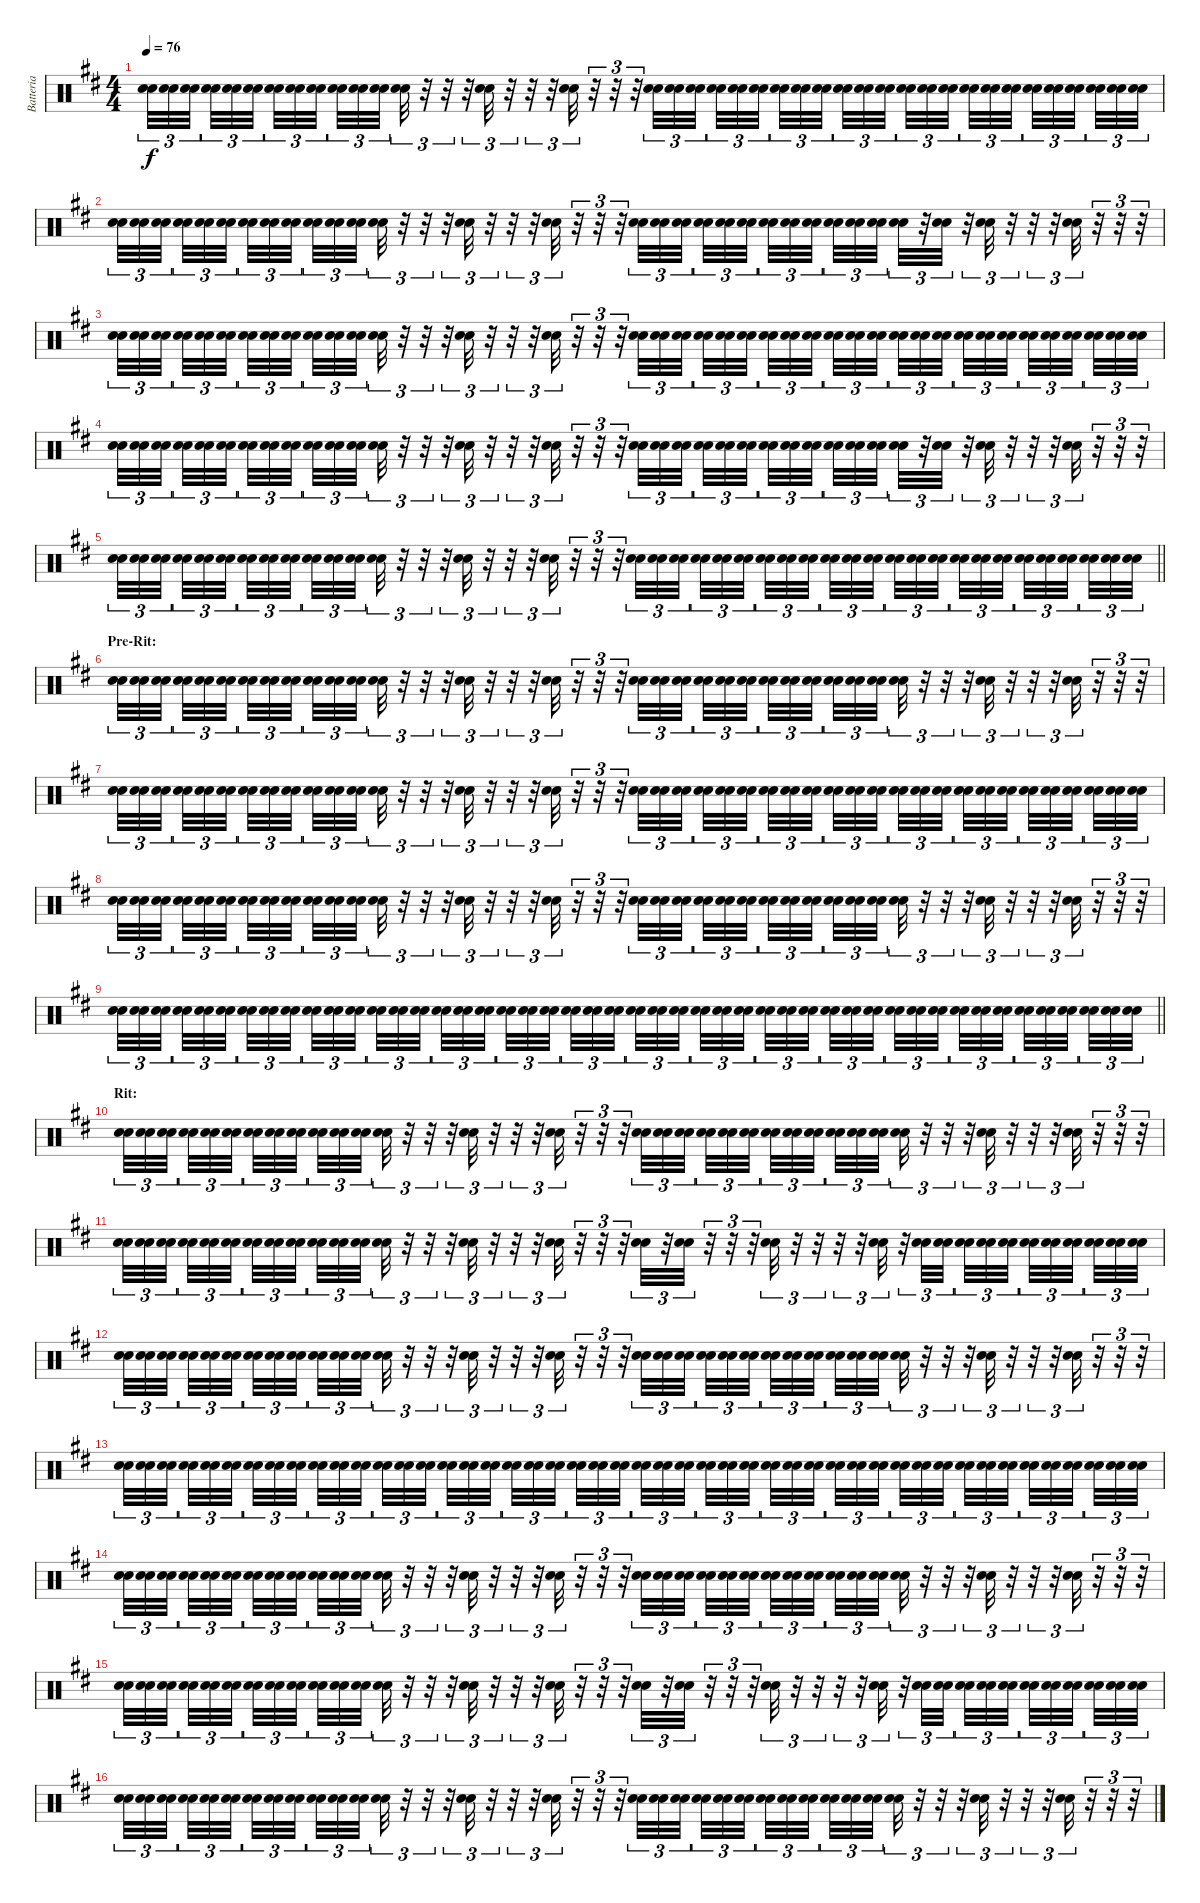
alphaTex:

\track ("Batteria" "Batteria") {instrument percussion}
\staff {score}
\articulation defaults
\ts (4 4)
\tempo 76
\clef neutral
\ks d
("Snare (hit) 2" "Snare (hit) 2").32{tu (3 2) dy f} ("Snare (hit) 2" "Snare (hit) 2").32{tu (3 2)} ("Snare (hit) 2" "Snare (hit) 2").32{tu (3 2) beam splitsecondary} ("Snare (hit) 2" "Snare (hit) 2").32{tu (3 2)} ("Snare (hit) 2" "Snare (hit) 2").32{tu (3 2)} ("Snare (hit) 2" "Snare (hit) 2").32{tu (3 2) beam splitsecondary} ("Snare (hit) 2" "Snare (hit) 2").32{tu (3 2)} ("Snare (hit) 2" "Snare (hit) 2").32{tu (3 2)} ("Snare (hit) 2" "Snare (hit) 2").32{tu (3 2) beam splitsecondary} ("Snare (hit) 2" "Snare (hit) 2").32{tu (3 2)} ("Snare (hit) 2" "Snare (hit) 2").32{tu (3 2)} ("Snare (hit) 2" "Snare (hit) 2").32{tu (3 2)} ("Snare (hit) 2" "Snare (hit) 2").32{tu (3 2)} r.32{tu (3 2)} r.32{tu (3 2)} r.32{tu (3 2)} ("Snare (hit) 2" "Snare (hit) 2").32{tu (3 2)} r.32{tu (3 2)} r.32{tu (3 2)} r.32{tu (3 2)} ("Snare (hit) 2" "Snare (hit) 2").32{tu (3 2)} r.32{tu (3 2)} r.32{tu (3 2)} r.32{tu (3 2)} ("Snare (hit) 2" "Snare (hit) 2").32{tu (3 2)} ("Snare (hit) 2" "Snare (hit) 2").32{tu (3 2)} ("Snare (hit) 2" "Snare (hit) 2").32{tu (3 2) beam splitsecondary} ("Snare (hit) 2" "Snare (hit) 2").32{tu (3 2)} ("Snare (hit) 2" "Snare (hit) 2").32{tu (3 2)} ("Snare (hit) 2" "Snare (hit) 2").32{tu (3 2) beam splitsecondary} ("Snare (hit) 2" "Snare (hit) 2").32{tu (3 2)} ("Snare (hit) 2" "Snare (hit) 2").32{tu (3 2)} ("Snare (hit) 2" "Snare (hit) 2").32{tu (3 2) beam splitsecondary} ("Snare (hit) 2" "Snare (hit) 2").32{tu (3 2)} ("Snare (hit) 2" "Snare (hit) 2").32{tu (3 2)} ("Snare (hit) 2" "Snare (hit) 2").32{tu (3 2)} ("Snare (hit) 2" "Snare (hit) 2").32{tu (3 2)} ("Snare (hit) 2" "Snare (hit) 2").32{tu (3 2)} ("Snare (hit) 2" "Snare (hit) 2").32{tu (3 2) beam splitsecondary} ("Snare (hit) 2" "Snare (hit) 2").32{tu (3 2)} ("Snare (hit) 2" "Snare (hit) 2").32{tu (3 2)} ("Snare (hit) 2" "Snare (hit) 2").32{tu (3 2) beam splitsecondary} ("Snare (hit) 2" "Snare (hit) 2").32{tu (3 2)} ("Snare (hit) 2" "Snare (hit) 2").32{tu (3 2)} ("Snare (hit) 2" "Snare (hit) 2").32{tu (3 2) beam splitsecondary} ("Snare (hit) 2" "Snare (hit) 2").32{tu (3 2)} ("Snare (hit) 2" "Snare (hit) 2").32{tu (3 2)} ("Snare (hit) 2" "Snare (hit) 2").32{tu (3 2)} |
("Snare (hit) 2" "Snare (hit) 2").32{tu (3 2)} ("Snare (hit) 2" "Snare (hit) 2").32{tu (3 2)} ("Snare (hit) 2" "Snare (hit) 2").32{tu (3 2) beam splitsecondary} ("Snare (hit) 2" "Snare (hit) 2").32{tu (3 2)} ("Snare (hit) 2" "Snare (hit) 2").32{tu (3 2)} ("Snare (hit) 2" "Snare (hit) 2").32{tu (3 2) beam splitsecondary} ("Snare (hit) 2" "Snare (hit) 2").32{tu (3 2)} ("Snare (hit) 2" "Snare (hit) 2").32{tu (3 2)} ("Snare (hit) 2" "Snare (hit) 2").32{tu (3 2) beam splitsecondary} ("Snare (hit) 2" "Snare (hit) 2").32{tu (3 2)} ("Snare (hit) 2" "Snare (hit) 2").32{tu (3 2)} ("Snare (hit) 2" "Snare (hit) 2").32{tu (3 2)} ("Snare (hit) 2" "Snare (hit) 2").32{tu (3 2)} r.32{tu (3 2)} r.32{tu (3 2)} r.32{tu (3 2)} ("Snare (hit) 2" "Snare (hit) 2").32{tu (3 2)} r.32{tu (3 2)} r.32{tu (3 2)} r.32{tu (3 2)} ("Snare (hit) 2" "Snare (hit) 2").32{tu (3 2)} r.32{tu (3 2)} r.32{tu (3 2)} r.32{tu (3 2)} ("Snare (hit) 2" "Snare (hit) 2").32{tu (3 2)} ("Snare (hit) 2" "Snare (hit) 2").32{tu (3 2)} ("Snare (hit) 2" "Snare (hit) 2").32{tu (3 2) beam splitsecondary} ("Snare (hit) 2" "Snare (hit) 2").32{tu (3 2)} ("Snare (hit) 2" "Snare (hit) 2").32{tu (3 2)} ("Snare (hit) 2" "Snare (hit) 2").32{tu (3 2) beam splitsecondary} ("Snare (hit) 2" "Snare (hit) 2").32{tu (3 2)} ("Snare (hit) 2" "Snare (hit) 2").32{tu (3 2)} ("Snare (hit) 2" "Snare (hit) 2").32{tu (3 2) beam splitsecondary} ("Snare (hit) 2" "Snare (hit) 2").32{tu (3 2)} ("Snare (hit) 2" "Snare (hit) 2").32{tu (3 2)} ("Snare (hit) 2" "Snare (hit) 2").32{tu (3 2)} ("Snare (hit) 2" "Snare (hit) 2").32{tu (3 2)} r.32{tu (3 2)} ("Snare (hit) 2" "Snare (hit) 2").32{tu (3 2)} r.32{tu (3 2)} ("Snare (hit) 2" "Snare (hit) 2").32{tu (3 2)} r.32{tu (3 2)} r.32{tu (3 2)} r.32{tu (3 2)} ("Snare (hit) 2" "Snare (hit) 2").32{tu (3 2)} r.32{tu (3 2)} r.32{tu (3 2)} r.32{tu (3 2)} |
("Snare (hit) 2" "Snare (hit) 2").32{tu (3 2)} ("Snare (hit) 2" "Snare (hit) 2").32{tu (3 2)} ("Snare (hit) 2" "Snare (hit) 2").32{tu (3 2) beam splitsecondary} ("Snare (hit) 2" "Snare (hit) 2").32{tu (3 2)} ("Snare (hit) 2" "Snare (hit) 2").32{tu (3 2)} ("Snare (hit) 2" "Snare (hit) 2").32{tu (3 2) beam splitsecondary} ("Snare (hit) 2" "Snare (hit) 2").32{tu (3 2)} ("Snare (hit) 2" "Snare (hit) 2").32{tu (3 2)} ("Snare (hit) 2" "Snare (hit) 2").32{tu (3 2) beam splitsecondary} ("Snare (hit) 2" "Snare (hit) 2").32{tu (3 2)} ("Snare (hit) 2" "Snare (hit) 2").32{tu (3 2)} ("Snare (hit) 2" "Snare (hit) 2").32{tu (3 2)} ("Snare (hit) 2" "Snare (hit) 2").32{tu (3 2)} r.32{tu (3 2)} r.32{tu (3 2)} r.32{tu (3 2)} ("Snare (hit) 2" "Snare (hit) 2").32{tu (3 2)} r.32{tu (3 2)} r.32{tu (3 2)} r.32{tu (3 2)} ("Snare (hit) 2" "Snare (hit) 2").32{tu (3 2)} r.32{tu (3 2)} r.32{tu (3 2)} r.32{tu (3 2)} ("Snare (hit) 2" "Snare (hit) 2").32{tu (3 2)} ("Snare (hit) 2" "Snare (hit) 2").32{tu (3 2)} ("Snare (hit) 2" "Snare (hit) 2").32{tu (3 2) beam splitsecondary} ("Snare (hit) 2" "Snare (hit) 2").32{tu (3 2)} ("Snare (hit) 2" "Snare (hit) 2").32{tu (3 2)} ("Snare (hit) 2" "Snare (hit) 2").32{tu (3 2) beam splitsecondary} ("Snare (hit) 2" "Snare (hit) 2").32{tu (3 2)} ("Snare (hit) 2" "Snare (hit) 2").32{tu (3 2)} ("Snare (hit) 2" "Snare (hit) 2").32{tu (3 2) beam splitsecondary} ("Snare (hit) 2" "Snare (hit) 2").32{tu (3 2)} ("Snare (hit) 2" "Snare (hit) 2").32{tu (3 2)} ("Snare (hit) 2" "Snare (hit) 2").32{tu (3 2)} ("Snare (hit) 2" "Snare (hit) 2").32{tu (3 2)} ("Snare (hit) 2" "Snare (hit) 2").32{tu (3 2)} ("Snare (hit) 2" "Snare (hit) 2").32{tu (3 2) beam splitsecondary} ("Snare (hit) 2" "Snare (hit) 2").32{tu (3 2)} ("Snare (hit) 2" "Snare (hit) 2").32{tu (3 2)} ("Snare (hit) 2" "Snare (hit) 2").32{tu (3 2) beam splitsecondary} ("Snare (hit) 2" "Snare (hit) 2").32{tu (3 2)} ("Snare (hit) 2" "Snare (hit) 2").32{tu (3 2)} ("Snare (hit) 2" "Snare (hit) 2").32{tu (3 2) beam splitsecondary} ("Snare (hit) 2" "Snare (hit) 2").32{tu (3 2)} ("Snare (hit) 2" "Snare (hit) 2").32{tu (3 2)} ("Snare (hit) 2" "Snare (hit) 2").32{tu (3 2)} |
("Snare (hit) 2" "Snare (hit) 2").32{tu (3 2)} ("Snare (hit) 2" "Snare (hit) 2").32{tu (3 2)} ("Snare (hit) 2" "Snare (hit) 2").32{tu (3 2) beam splitsecondary} ("Snare (hit) 2" "Snare (hit) 2").32{tu (3 2)} ("Snare (hit) 2" "Snare (hit) 2").32{tu (3 2)} ("Snare (hit) 2" "Snare (hit) 2").32{tu (3 2) beam splitsecondary} ("Snare (hit) 2" "Snare (hit) 2").32{tu (3 2)} ("Snare (hit) 2" "Snare (hit) 2").32{tu (3 2)} ("Snare (hit) 2" "Snare (hit) 2").32{tu (3 2) beam splitsecondary} ("Snare (hit) 2" "Snare (hit) 2").32{tu (3 2)} ("Snare (hit) 2" "Snare (hit) 2").32{tu (3 2)} ("Snare (hit) 2" "Snare (hit) 2").32{tu (3 2)} ("Snare (hit) 2" "Snare (hit) 2").32{tu (3 2)} r.32{tu (3 2)} r.32{tu (3 2)} r.32{tu (3 2)} ("Snare (hit) 2" "Snare (hit) 2").32{tu (3 2)} r.32{tu (3 2)} r.32{tu (3 2)} r.32{tu (3 2)} ("Snare (hit) 2" "Snare (hit) 2").32{tu (3 2)} r.32{tu (3 2)} r.32{tu (3 2)} r.32{tu (3 2)} ("Snare (hit) 2" "Snare (hit) 2").32{tu (3 2)} ("Snare (hit) 2" "Snare (hit) 2").32{tu (3 2)} ("Snare (hit) 2" "Snare (hit) 2").32{tu (3 2) beam splitsecondary} ("Snare (hit) 2" "Snare (hit) 2").32{tu (3 2)} ("Snare (hit) 2" "Snare (hit) 2").32{tu (3 2)} ("Snare (hit) 2" "Snare (hit) 2").32{tu (3 2) beam splitsecondary} ("Snare (hit) 2" "Snare (hit) 2").32{tu (3 2)} ("Snare (hit) 2" "Snare (hit) 2").32{tu (3 2)} ("Snare (hit) 2" "Snare (hit) 2").32{tu (3 2) beam splitsecondary} ("Snare (hit) 2" "Snare (hit) 2").32{tu (3 2)} ("Snare (hit) 2" "Snare (hit) 2").32{tu (3 2)} ("Snare (hit) 2" "Snare (hit) 2").32{tu (3 2)} ("Snare (hit) 2" "Snare (hit) 2").32{tu (3 2)} r.32{tu (3 2)} ("Snare (hit) 2" "Snare (hit) 2").32{tu (3 2)} r.32{tu (3 2)} ("Snare (hit) 2" "Snare (hit) 2").32{tu (3 2)} r.32{tu (3 2)} r.32{tu (3 2)} r.32{tu (3 2)} ("Snare (hit) 2" "Snare (hit) 2").32{tu (3 2)} r.32{tu (3 2)} r.32{tu (3 2)} r.32{tu (3 2)} |
\barLineRight lightlight
("Snare (hit) 2" "Snare (hit) 2").32{tu (3 2)} ("Snare (hit) 2" "Snare (hit) 2").32{tu (3 2)} ("Snare (hit) 2" "Snare (hit) 2").32{tu (3 2) beam splitsecondary} ("Snare (hit) 2" "Snare (hit) 2").32{tu (3 2)} ("Snare (hit) 2" "Snare (hit) 2").32{tu (3 2)} ("Snare (hit) 2" "Snare (hit) 2").32{tu (3 2) beam splitsecondary} ("Snare (hit) 2" "Snare (hit) 2").32{tu (3 2)} ("Snare (hit) 2" "Snare (hit) 2").32{tu (3 2)} ("Snare (hit) 2" "Snare (hit) 2").32{tu (3 2) beam splitsecondary} ("Snare (hit) 2" "Snare (hit) 2").32{tu (3 2)} ("Snare (hit) 2" "Snare (hit) 2").32{tu (3 2)} ("Snare (hit) 2" "Snare (hit) 2").32{tu (3 2)} ("Snare (hit) 2" "Snare (hit) 2").32{tu (3 2)} r.32{tu (3 2)} r.32{tu (3 2)} r.32{tu (3 2)} ("Snare (hit) 2" "Snare (hit) 2").32{tu (3 2)} r.32{tu (3 2)} r.32{tu (3 2)} r.32{tu (3 2)} ("Snare (hit) 2" "Snare (hit) 2").32{tu (3 2)} r.32{tu (3 2)} r.32{tu (3 2)} r.32{tu (3 2)} ("Snare (hit) 2" "Snare (hit) 2").32{tu (3 2)} ("Snare (hit) 2" "Snare (hit) 2").32{tu (3 2)} ("Snare (hit) 2" "Snare (hit) 2").32{tu (3 2) beam splitsecondary} ("Snare (hit) 2" "Snare (hit) 2").32{tu (3 2)} ("Snare (hit) 2" "Snare (hit) 2").32{tu (3 2)} ("Snare (hit) 2" "Snare (hit) 2").32{tu (3 2) beam splitsecondary} ("Snare (hit) 2" "Snare (hit) 2").32{tu (3 2)} ("Snare (hit) 2" "Snare (hit) 2").32{tu (3 2)} ("Snare (hit) 2" "Snare (hit) 2").32{tu (3 2) beam splitsecondary} ("Snare (hit) 2" "Snare (hit) 2").32{tu (3 2)} ("Snare (hit) 2" "Snare (hit) 2").32{tu (3 2)} ("Snare (hit) 2" "Snare (hit) 2").32{tu (3 2)} ("Snare (hit) 2" "Snare (hit) 2").32{tu (3 2)} ("Snare (hit) 2" "Snare (hit) 2").32{tu (3 2)} ("Snare (hit) 2" "Snare (hit) 2").32{tu (3 2) beam splitsecondary} ("Snare (hit) 2" "Snare (hit) 2").32{tu (3 2)} ("Snare (hit) 2" "Snare (hit) 2").32{tu (3 2)} ("Snare (hit) 2" "Snare (hit) 2").32{tu (3 2) beam splitsecondary} ("Snare (hit) 2" "Snare (hit) 2").32{tu (3 2)} ("Snare (hit) 2" "Snare (hit) 2").32{tu (3 2)} ("Snare (hit) 2" "Snare (hit) 2").32{tu (3 2) beam splitsecondary} ("Snare (hit) 2" "Snare (hit) 2").32{tu (3 2)} ("Snare (hit) 2" "Snare (hit) 2").32{tu (3 2)} ("Snare (hit) 2" "Snare (hit) 2").32{tu (3 2)} |
\section ("" "Pre-Rit:")
("Snare (hit) 2" "Snare (hit) 2").32{tu (3 2)} ("Snare (hit) 2" "Snare (hit) 2").32{tu (3 2)} ("Snare (hit) 2" "Snare (hit) 2").32{tu (3 2) beam splitsecondary} ("Snare (hit) 2" "Snare (hit) 2").32{tu (3 2)} ("Snare (hit) 2" "Snare (hit) 2").32{tu (3 2)} ("Snare (hit) 2" "Snare (hit) 2").32{tu (3 2) beam splitsecondary} ("Snare (hit) 2" "Snare (hit) 2").32{tu (3 2)} ("Snare (hit) 2" "Snare (hit) 2").32{tu (3 2)} ("Snare (hit) 2" "Snare (hit) 2").32{tu (3 2) beam splitsecondary} ("Snare (hit) 2" "Snare (hit) 2").32{tu (3 2)} ("Snare (hit) 2" "Snare (hit) 2").32{tu (3 2)} ("Snare (hit) 2" "Snare (hit) 2").32{tu (3 2)} ("Snare (hit) 2" "Snare (hit) 2").32{tu (3 2)} r.32{tu (3 2)} r.32{tu (3 2)} r.32{tu (3 2)} ("Snare (hit) 2" "Snare (hit) 2").32{tu (3 2)} r.32{tu (3 2)} r.32{tu (3 2)} r.32{tu (3 2)} ("Snare (hit) 2" "Snare (hit) 2").32{tu (3 2)} r.32{tu (3 2)} r.32{tu (3 2)} r.32{tu (3 2)} ("Snare (hit) 2" "Snare (hit) 2").32{tu (3 2)} ("Snare (hit) 2" "Snare (hit) 2").32{tu (3 2)} ("Snare (hit) 2" "Snare (hit) 2").32{tu (3 2) beam splitsecondary} ("Snare (hit) 2" "Snare (hit) 2").32{tu (3 2)} ("Snare (hit) 2" "Snare (hit) 2").32{tu (3 2)} ("Snare (hit) 2" "Snare (hit) 2").32{tu (3 2) beam splitsecondary} ("Snare (hit) 2" "Snare (hit) 2").32{tu (3 2)} ("Snare (hit) 2" "Snare (hit) 2").32{tu (3 2)} ("Snare (hit) 2" "Snare (hit) 2").32{tu (3 2) beam splitsecondary} ("Snare (hit) 2" "Snare (hit) 2").32{tu (3 2)} ("Snare (hit) 2" "Snare (hit) 2").32{tu (3 2)} ("Snare (hit) 2" "Snare (hit) 2").32{tu (3 2)} ("Snare (hit) 2" "Snare (hit) 2").32{tu (3 2)} r.32{tu (3 2)} r.32{tu (3 2)} r.32{tu (3 2)} ("Snare (hit) 2" "Snare (hit) 2").32{tu (3 2)} r.32{tu (3 2)} r.32{tu (3 2)} r.32{tu (3 2)} ("Snare (hit) 2" "Snare (hit) 2").32{tu (3 2)} r.32{tu (3 2)} r.32{tu (3 2)} r.32{tu (3 2)} |
("Snare (hit) 2" "Snare (hit) 2").32{tu (3 2)} ("Snare (hit) 2" "Snare (hit) 2").32{tu (3 2)} ("Snare (hit) 2" "Snare (hit) 2").32{tu (3 2) beam splitsecondary} ("Snare (hit) 2" "Snare (hit) 2").32{tu (3 2)} ("Snare (hit) 2" "Snare (hit) 2").32{tu (3 2)} ("Snare (hit) 2" "Snare (hit) 2").32{tu (3 2) beam splitsecondary} ("Snare (hit) 2" "Snare (hit) 2").32{tu (3 2)} ("Snare (hit) 2" "Snare (hit) 2").32{tu (3 2)} ("Snare (hit) 2" "Snare (hit) 2").32{tu (3 2) beam splitsecondary} ("Snare (hit) 2" "Snare (hit) 2").32{tu (3 2)} ("Snare (hit) 2" "Snare (hit) 2").32{tu (3 2)} ("Snare (hit) 2" "Snare (hit) 2").32{tu (3 2)} ("Snare (hit) 2" "Snare (hit) 2").32{tu (3 2)} r.32{tu (3 2)} r.32{tu (3 2)} r.32{tu (3 2)} ("Snare (hit) 2" "Snare (hit) 2").32{tu (3 2)} r.32{tu (3 2)} r.32{tu (3 2)} r.32{tu (3 2)} ("Snare (hit) 2" "Snare (hit) 2").32{tu (3 2)} r.32{tu (3 2)} r.32{tu (3 2)} r.32{tu (3 2)} ("Snare (hit) 2" "Snare (hit) 2").32{tu (3 2)} ("Snare (hit) 2" "Snare (hit) 2").32{tu (3 2)} ("Snare (hit) 2" "Snare (hit) 2").32{tu (3 2) beam splitsecondary} ("Snare (hit) 2" "Snare (hit) 2").32{tu (3 2)} ("Snare (hit) 2" "Snare (hit) 2").32{tu (3 2)} ("Snare (hit) 2" "Snare (hit) 2").32{tu (3 2) beam splitsecondary} ("Snare (hit) 2" "Snare (hit) 2").32{tu (3 2)} ("Snare (hit) 2" "Snare (hit) 2").32{tu (3 2)} ("Snare (hit) 2" "Snare (hit) 2").32{tu (3 2) beam splitsecondary} ("Snare (hit) 2" "Snare (hit) 2").32{tu (3 2)} ("Snare (hit) 2" "Snare (hit) 2").32{tu (3 2)} ("Snare (hit) 2" "Snare (hit) 2").32{tu (3 2)} ("Snare (hit) 2" "Snare (hit) 2").32{tu (3 2)} ("Snare (hit) 2" "Snare (hit) 2").32{tu (3 2)} ("Snare (hit) 2" "Snare (hit) 2").32{tu (3 2) beam splitsecondary} ("Snare (hit) 2" "Snare (hit) 2").32{tu (3 2)} ("Snare (hit) 2" "Snare (hit) 2").32{tu (3 2)} ("Snare (hit) 2" "Snare (hit) 2").32{tu (3 2) beam splitsecondary} ("Snare (hit) 2" "Snare (hit) 2").32{tu (3 2)} ("Snare (hit) 2" "Snare (hit) 2").32{tu (3 2)} ("Snare (hit) 2" "Snare (hit) 2").32{tu (3 2) beam splitsecondary} ("Snare (hit) 2" "Snare (hit) 2").32{tu (3 2)} ("Snare (hit) 2" "Snare (hit) 2").32{tu (3 2)} ("Snare (hit) 2" "Snare (hit) 2").32{tu (3 2)} |
("Snare (hit) 2" "Snare (hit) 2").32{tu (3 2)} ("Snare (hit) 2" "Snare (hit) 2").32{tu (3 2)} ("Snare (hit) 2" "Snare (hit) 2").32{tu (3 2) beam splitsecondary} ("Snare (hit) 2" "Snare (hit) 2").32{tu (3 2)} ("Snare (hit) 2" "Snare (hit) 2").32{tu (3 2)} ("Snare (hit) 2" "Snare (hit) 2").32{tu (3 2) beam splitsecondary} ("Snare (hit) 2" "Snare (hit) 2").32{tu (3 2)} ("Snare (hit) 2" "Snare (hit) 2").32{tu (3 2)} ("Snare (hit) 2" "Snare (hit) 2").32{tu (3 2) beam splitsecondary} ("Snare (hit) 2" "Snare (hit) 2").32{tu (3 2)} ("Snare (hit) 2" "Snare (hit) 2").32{tu (3 2)} ("Snare (hit) 2" "Snare (hit) 2").32{tu (3 2)} ("Snare (hit) 2" "Snare (hit) 2").32{tu (3 2)} r.32{tu (3 2)} r.32{tu (3 2)} r.32{tu (3 2)} ("Snare (hit) 2" "Snare (hit) 2").32{tu (3 2)} r.32{tu (3 2)} r.32{tu (3 2)} r.32{tu (3 2)} ("Snare (hit) 2" "Snare (hit) 2").32{tu (3 2)} r.32{tu (3 2)} r.32{tu (3 2)} r.32{tu (3 2)} ("Snare (hit) 2" "Snare (hit) 2").32{tu (3 2)} ("Snare (hit) 2" "Snare (hit) 2").32{tu (3 2)} ("Snare (hit) 2" "Snare (hit) 2").32{tu (3 2) beam splitsecondary} ("Snare (hit) 2" "Snare (hit) 2").32{tu (3 2)} ("Snare (hit) 2" "Snare (hit) 2").32{tu (3 2)} ("Snare (hit) 2" "Snare (hit) 2").32{tu (3 2) beam splitsecondary} ("Snare (hit) 2" "Snare (hit) 2").32{tu (3 2)} ("Snare (hit) 2" "Snare (hit) 2").32{tu (3 2)} ("Snare (hit) 2" "Snare (hit) 2").32{tu (3 2) beam splitsecondary} ("Snare (hit) 2" "Snare (hit) 2").32{tu (3 2)} ("Snare (hit) 2" "Snare (hit) 2").32{tu (3 2)} ("Snare (hit) 2" "Snare (hit) 2").32{tu (3 2)} ("Snare (hit) 2" "Snare (hit) 2").32{tu (3 2)} r.32{tu (3 2)} r.32{tu (3 2)} r.32{tu (3 2)} ("Snare (hit) 2" "Snare (hit) 2").32{tu (3 2)} r.32{tu (3 2)} r.32{tu (3 2)} r.32{tu (3 2)} ("Snare (hit) 2" "Snare (hit) 2").32{tu (3 2)} r.32{tu (3 2)} r.32{tu (3 2)} r.32{tu (3 2)} |
\barLineRight lightlight
("Snare (hit) 2" "Snare (hit) 2").32{tu (3 2)} ("Snare (hit) 2" "Snare (hit) 2").32{tu (3 2)} ("Snare (hit) 2" "Snare (hit) 2").32{tu (3 2) beam splitsecondary} ("Snare (hit) 2" "Snare (hit) 2").32{tu (3 2)} ("Snare (hit) 2" "Snare (hit) 2").32{tu (3 2)} ("Snare (hit) 2" "Snare (hit) 2").32{tu (3 2) beam splitsecondary} ("Snare (hit) 2" "Snare (hit) 2").32{tu (3 2)} ("Snare (hit) 2" "Snare (hit) 2").32{tu (3 2)} ("Snare (hit) 2" "Snare (hit) 2").32{tu (3 2) beam splitsecondary} ("Snare (hit) 2" "Snare (hit) 2").32{tu (3 2)} ("Snare (hit) 2" "Snare (hit) 2").32{tu (3 2)} ("Snare (hit) 2" "Snare (hit) 2").32{tu (3 2)} ("Snare (hit) 2" "Snare (hit) 2").32{tu (3 2)} ("Snare (hit) 2" "Snare (hit) 2").32{tu (3 2)} ("Snare (hit) 2" "Snare (hit) 2").32{tu (3 2) beam splitsecondary} ("Snare (hit) 2" "Snare (hit) 2").32{tu (3 2)} ("Snare (hit) 2" "Snare (hit) 2").32{tu (3 2)} ("Snare (hit) 2" "Snare (hit) 2").32{tu (3 2) beam splitsecondary} ("Snare (hit) 2" "Snare (hit) 2").32{tu (3 2)} ("Snare (hit) 2" "Snare (hit) 2").32{tu (3 2)} ("Snare (hit) 2" "Snare (hit) 2").32{tu (3 2) beam splitsecondary} ("Snare (hit) 2" "Snare (hit) 2").32{tu (3 2)} ("Snare (hit) 2" "Snare (hit) 2").32{tu (3 2)} ("Snare (hit) 2" "Snare (hit) 2").32{tu (3 2)} ("Snare (hit) 2" "Snare (hit) 2").32{tu (3 2)} ("Snare (hit) 2" "Snare (hit) 2").32{tu (3 2)} ("Snare (hit) 2" "Snare (hit) 2").32{tu (3 2) beam splitsecondary} ("Snare (hit) 2" "Snare (hit) 2").32{tu (3 2)} ("Snare (hit) 2" "Snare (hit) 2").32{tu (3 2)} ("Snare (hit) 2" "Snare (hit) 2").32{tu (3 2) beam splitsecondary} ("Snare (hit) 2" "Snare (hit) 2").32{tu (3 2)} ("Snare (hit) 2" "Snare (hit) 2").32{tu (3 2)} ("Snare (hit) 2" "Snare (hit) 2").32{tu (3 2) beam splitsecondary} ("Snare (hit) 2" "Snare (hit) 2").32{tu (3 2)} ("Snare (hit) 2" "Snare (hit) 2").32{tu (3 2)} ("Snare (hit) 2" "Snare (hit) 2").32{tu (3 2)} ("Snare (hit) 2" "Snare (hit) 2").32{tu (3 2)} ("Snare (hit) 2" "Snare (hit) 2").32{tu (3 2)} ("Snare (hit) 2" "Snare (hit) 2").32{tu (3 2) beam splitsecondary} ("Snare (hit) 2" "Snare (hit) 2").32{tu (3 2)} ("Snare (hit) 2" "Snare (hit) 2").32{tu (3 2)} ("Snare (hit) 2" "Snare (hit) 2").32{tu (3 2) beam splitsecondary} ("Snare (hit) 2" "Snare (hit) 2").32{tu (3 2)} ("Snare (hit) 2" "Snare (hit) 2").32{tu (3 2)} ("Snare (hit) 2" "Snare (hit) 2").32{tu (3 2) beam splitsecondary} ("Snare (hit) 2" "Snare (hit) 2").32{tu (3 2)} ("Snare (hit) 2" "Snare (hit) 2").32{tu (3 2)} ("Snare (hit) 2" "Snare (hit) 2").32{tu (3 2)} |
\section ("" "Rit:")
("Snare (hit) 2" "Snare (hit) 2").32{tu (3 2)} ("Snare (hit) 2" "Snare (hit) 2").32{tu (3 2)} ("Snare (hit) 2" "Snare (hit) 2").32{tu (3 2) beam splitsecondary} ("Snare (hit) 2" "Snare (hit) 2").32{tu (3 2)} ("Snare (hit) 2" "Snare (hit) 2").32{tu (3 2)} ("Snare (hit) 2" "Snare (hit) 2").32{tu (3 2) beam splitsecondary} ("Snare (hit) 2" "Snare (hit) 2").32{tu (3 2)} ("Snare (hit) 2" "Snare (hit) 2").32{tu (3 2)} ("Snare (hit) 2" "Snare (hit) 2").32{tu (3 2) beam splitsecondary} ("Snare (hit) 2" "Snare (hit) 2").32{tu (3 2)} ("Snare (hit) 2" "Snare (hit) 2").32{tu (3 2)} ("Snare (hit) 2" "Snare (hit) 2").32{tu (3 2)} ("Snare (hit) 2" "Snare (hit) 2").32{tu (3 2)} r.32{tu (3 2)} r.32{tu (3 2)} r.32{tu (3 2)} ("Snare (hit) 2" "Snare (hit) 2").32{tu (3 2)} r.32{tu (3 2)} r.32{tu (3 2)} r.32{tu (3 2)} ("Snare (hit) 2" "Snare (hit) 2").32{tu (3 2)} r.32{tu (3 2)} r.32{tu (3 2)} r.32{tu (3 2)} ("Snare (hit) 2" "Snare (hit) 2").32{tu (3 2)} ("Snare (hit) 2" "Snare (hit) 2").32{tu (3 2)} ("Snare (hit) 2" "Snare (hit) 2").32{tu (3 2) beam splitsecondary} ("Snare (hit) 2" "Snare (hit) 2").32{tu (3 2)} ("Snare (hit) 2" "Snare (hit) 2").32{tu (3 2)} ("Snare (hit) 2" "Snare (hit) 2").32{tu (3 2) beam splitsecondary} ("Snare (hit) 2" "Snare (hit) 2").32{tu (3 2)} ("Snare (hit) 2" "Snare (hit) 2").32{tu (3 2)} ("Snare (hit) 2" "Snare (hit) 2").32{tu (3 2) beam splitsecondary} ("Snare (hit) 2" "Snare (hit) 2").32{tu (3 2)} ("Snare (hit) 2" "Snare (hit) 2").32{tu (3 2)} ("Snare (hit) 2" "Snare (hit) 2").32{tu (3 2)} ("Snare (hit) 2" "Snare (hit) 2").32{tu (3 2)} r.32{tu (3 2)} r.32{tu (3 2)} r.32{tu (3 2)} ("Snare (hit) 2" "Snare (hit) 2").32{tu (3 2)} r.32{tu (3 2)} r.32{tu (3 2)} r.32{tu (3 2)} ("Snare (hit) 2" "Snare (hit) 2").32{tu (3 2)} r.32{tu (3 2)} r.32{tu (3 2)} r.32{tu (3 2)} |
("Snare (hit) 2" "Snare (hit) 2").32{tu (3 2)} ("Snare (hit) 2" "Snare (hit) 2").32{tu (3 2)} ("Snare (hit) 2" "Snare (hit) 2").32{tu (3 2) beam splitsecondary} ("Snare (hit) 2" "Snare (hit) 2").32{tu (3 2)} ("Snare (hit) 2" "Snare (hit) 2").32{tu (3 2)} ("Snare (hit) 2" "Snare (hit) 2").32{tu (3 2) beam splitsecondary} ("Snare (hit) 2" "Snare (hit) 2").32{tu (3 2)} ("Snare (hit) 2" "Snare (hit) 2").32{tu (3 2)} ("Snare (hit) 2" "Snare (hit) 2").32{tu (3 2) beam splitsecondary} ("Snare (hit) 2" "Snare (hit) 2").32{tu (3 2)} ("Snare (hit) 2" "Snare (hit) 2").32{tu (3 2)} ("Snare (hit) 2" "Snare (hit) 2").32{tu (3 2)} ("Snare (hit) 2" "Snare (hit) 2").32{tu (3 2)} r.32{tu (3 2)} r.32{tu (3 2)} r.32{tu (3 2)} ("Snare (hit) 2" "Snare (hit) 2").32{tu (3 2)} r.32{tu (3 2)} r.32{tu (3 2)} r.32{tu (3 2)} ("Snare (hit) 2" "Snare (hit) 2").32{tu (3 2)} r.32{tu (3 2)} r.32{tu (3 2)} r.32{tu (3 2)} ("Snare (hit) 2" "Snare (hit) 2").32{tu (3 2)} r.32{tu (3 2)} ("Snare (hit) 2" "Snare (hit) 2").32{tu (3 2)} r.32{tu (3 2)} r.32{tu (3 2)} r.32{tu (3 2)} ("Snare (hit) 2" "Snare (hit) 2").32{tu (3 2)} r.32{tu (3 2)} r.32{tu (3 2)} r.32{tu (3 2)} r.32{tu (3 2)} ("Snare (hit) 2" "Snare (hit) 2").32{tu (3 2)} r.32{tu (3 2)} ("Snare (hit) 2" "Snare (hit) 2").32{tu (3 2)} ("Snare (hit) 2" "Snare (hit) 2").32{tu (3 2) beam splitsecondary} ("Snare (hit) 2" "Snare (hit) 2").32{tu (3 2)} ("Snare (hit) 2" "Snare (hit) 2").32{tu (3 2)} ("Snare (hit) 2" "Snare (hit) 2").32{tu (3 2) beam splitsecondary} ("Snare (hit) 2" "Snare (hit) 2").32{tu (3 2)} ("Snare (hit) 2" "Snare (hit) 2").32{tu (3 2)} ("Snare (hit) 2" "Snare (hit) 2").32{tu (3 2) beam splitsecondary} ("Snare (hit) 2" "Snare (hit) 2").32{tu (3 2)} ("Snare (hit) 2" "Snare (hit) 2").32{tu (3 2)} ("Snare (hit) 2" "Snare (hit) 2").32{tu (3 2)} |
("Snare (hit) 2" "Snare (hit) 2").32{tu (3 2)} ("Snare (hit) 2" "Snare (hit) 2").32{tu (3 2)} ("Snare (hit) 2" "Snare (hit) 2").32{tu (3 2) beam splitsecondary} ("Snare (hit) 2" "Snare (hit) 2").32{tu (3 2)} ("Snare (hit) 2" "Snare (hit) 2").32{tu (3 2)} ("Snare (hit) 2" "Snare (hit) 2").32{tu (3 2) beam splitsecondary} ("Snare (hit) 2" "Snare (hit) 2").32{tu (3 2)} ("Snare (hit) 2" "Snare (hit) 2").32{tu (3 2)} ("Snare (hit) 2" "Snare (hit) 2").32{tu (3 2) beam splitsecondary} ("Snare (hit) 2" "Snare (hit) 2").32{tu (3 2)} ("Snare (hit) 2" "Snare (hit) 2").32{tu (3 2)} ("Snare (hit) 2" "Snare (hit) 2").32{tu (3 2)} ("Snare (hit) 2" "Snare (hit) 2").32{tu (3 2)} r.32{tu (3 2)} r.32{tu (3 2)} r.32{tu (3 2)} ("Snare (hit) 2" "Snare (hit) 2").32{tu (3 2)} r.32{tu (3 2)} r.32{tu (3 2)} r.32{tu (3 2)} ("Snare (hit) 2" "Snare (hit) 2").32{tu (3 2)} r.32{tu (3 2)} r.32{tu (3 2)} r.32{tu (3 2)} ("Snare (hit) 2" "Snare (hit) 2").32{tu (3 2)} ("Snare (hit) 2" "Snare (hit) 2").32{tu (3 2)} ("Snare (hit) 2" "Snare (hit) 2").32{tu (3 2) beam splitsecondary} ("Snare (hit) 2" "Snare (hit) 2").32{tu (3 2)} ("Snare (hit) 2" "Snare (hit) 2").32{tu (3 2)} ("Snare (hit) 2" "Snare (hit) 2").32{tu (3 2) beam splitsecondary} ("Snare (hit) 2" "Snare (hit) 2").32{tu (3 2)} ("Snare (hit) 2" "Snare (hit) 2").32{tu (3 2)} ("Snare (hit) 2" "Snare (hit) 2").32{tu (3 2) beam splitsecondary} ("Snare (hit) 2" "Snare (hit) 2").32{tu (3 2)} ("Snare (hit) 2" "Snare (hit) 2").32{tu (3 2)} ("Snare (hit) 2" "Snare (hit) 2").32{tu (3 2)} ("Snare (hit) 2" "Snare (hit) 2").32{tu (3 2)} r.32{tu (3 2)} r.32{tu (3 2)} r.32{tu (3 2)} ("Snare (hit) 2" "Snare (hit) 2").32{tu (3 2)} r.32{tu (3 2)} r.32{tu (3 2)} r.32{tu (3 2)} ("Snare (hit) 2" "Snare (hit) 2").32{tu (3 2)} r.32{tu (3 2)} r.32{tu (3 2)} r.32{tu (3 2)} |
("Snare (hit) 2" "Snare (hit) 2").32{tu (3 2)} ("Snare (hit) 2" "Snare (hit) 2").32{tu (3 2)} ("Snare (hit) 2" "Snare (hit) 2").32{tu (3 2) beam splitsecondary} ("Snare (hit) 2" "Snare (hit) 2").32{tu (3 2)} ("Snare (hit) 2" "Snare (hit) 2").32{tu (3 2)} ("Snare (hit) 2" "Snare (hit) 2").32{tu (3 2) beam splitsecondary} ("Snare (hit) 2" "Snare (hit) 2").32{tu (3 2)} ("Snare (hit) 2" "Snare (hit) 2").32{tu (3 2)} ("Snare (hit) 2" "Snare (hit) 2").32{tu (3 2) beam splitsecondary} ("Snare (hit) 2" "Snare (hit) 2").32{tu (3 2)} ("Snare (hit) 2" "Snare (hit) 2").32{tu (3 2)} ("Snare (hit) 2" "Snare (hit) 2").32{tu (3 2)} ("Snare (hit) 2" "Snare (hit) 2").32{tu (3 2)} ("Snare (hit) 2" "Snare (hit) 2").32{tu (3 2)} ("Snare (hit) 2" "Snare (hit) 2").32{tu (3 2) beam splitsecondary} ("Snare (hit) 2" "Snare (hit) 2").32{tu (3 2)} ("Snare (hit) 2" "Snare (hit) 2").32{tu (3 2)} ("Snare (hit) 2" "Snare (hit) 2").32{tu (3 2) beam splitsecondary} ("Snare (hit) 2" "Snare (hit) 2").32{tu (3 2)} ("Snare (hit) 2" "Snare (hit) 2").32{tu (3 2)} ("Snare (hit) 2" "Snare (hit) 2").32{tu (3 2) beam splitsecondary} ("Snare (hit) 2" "Snare (hit) 2").32{tu (3 2)} ("Snare (hit) 2" "Snare (hit) 2").32{tu (3 2)} ("Snare (hit) 2" "Snare (hit) 2").32{tu (3 2)} ("Snare (hit) 2" "Snare (hit) 2").32{tu (3 2)} ("Snare (hit) 2" "Snare (hit) 2").32{tu (3 2)} ("Snare (hit) 2" "Snare (hit) 2").32{tu (3 2) beam splitsecondary} ("Snare (hit) 2" "Snare (hit) 2").32{tu (3 2)} ("Snare (hit) 2" "Snare (hit) 2").32{tu (3 2)} ("Snare (hit) 2" "Snare (hit) 2").32{tu (3 2) beam splitsecondary} ("Snare (hit) 2" "Snare (hit) 2").32{tu (3 2)} ("Snare (hit) 2" "Snare (hit) 2").32{tu (3 2)} ("Snare (hit) 2" "Snare (hit) 2").32{tu (3 2) beam splitsecondary} ("Snare (hit) 2" "Snare (hit) 2").32{tu (3 2)} ("Snare (hit) 2" "Snare (hit) 2").32{tu (3 2)} ("Snare (hit) 2" "Snare (hit) 2").32{tu (3 2)} ("Snare (hit) 2" "Snare (hit) 2").32{tu (3 2)} ("Snare (hit) 2" "Snare (hit) 2").32{tu (3 2)} ("Snare (hit) 2" "Snare (hit) 2").32{tu (3 2) beam splitsecondary} ("Snare (hit) 2" "Snare (hit) 2").32{tu (3 2)} ("Snare (hit) 2" "Snare (hit) 2").32{tu (3 2)} ("Snare (hit) 2" "Snare (hit) 2").32{tu (3 2) beam splitsecondary} ("Snare (hit) 2" "Snare (hit) 2").32{tu (3 2)} ("Snare (hit) 2" "Snare (hit) 2").32{tu (3 2)} ("Snare (hit) 2" "Snare (hit) 2").32{tu (3 2) beam splitsecondary} ("Snare (hit) 2" "Snare (hit) 2").32{tu (3 2)} ("Snare (hit) 2" "Snare (hit) 2").32{tu (3 2)} ("Snare (hit) 2" "Snare (hit) 2").32{tu (3 2)} |
("Snare (hit) 2" "Snare (hit) 2").32{tu (3 2)} ("Snare (hit) 2" "Snare (hit) 2").32{tu (3 2)} ("Snare (hit) 2" "Snare (hit) 2").32{tu (3 2) beam splitsecondary} ("Snare (hit) 2" "Snare (hit) 2").32{tu (3 2)} ("Snare (hit) 2" "Snare (hit) 2").32{tu (3 2)} ("Snare (hit) 2" "Snare (hit) 2").32{tu (3 2) beam splitsecondary} ("Snare (hit) 2" "Snare (hit) 2").32{tu (3 2)} ("Snare (hit) 2" "Snare (hit) 2").32{tu (3 2)} ("Snare (hit) 2" "Snare (hit) 2").32{tu (3 2) beam splitsecondary} ("Snare (hit) 2" "Snare (hit) 2").32{tu (3 2)} ("Snare (hit) 2" "Snare (hit) 2").32{tu (3 2)} ("Snare (hit) 2" "Snare (hit) 2").32{tu (3 2)} ("Snare (hit) 2" "Snare (hit) 2").32{tu (3 2)} r.32{tu (3 2)} r.32{tu (3 2)} r.32{tu (3 2)} ("Snare (hit) 2" "Snare (hit) 2").32{tu (3 2)} r.32{tu (3 2)} r.32{tu (3 2)} r.32{tu (3 2)} ("Snare (hit) 2" "Snare (hit) 2").32{tu (3 2)} r.32{tu (3 2)} r.32{tu (3 2)} r.32{tu (3 2)} ("Snare (hit) 2" "Snare (hit) 2").32{tu (3 2)} ("Snare (hit) 2" "Snare (hit) 2").32{tu (3 2)} ("Snare (hit) 2" "Snare (hit) 2").32{tu (3 2) beam splitsecondary} ("Snare (hit) 2" "Snare (hit) 2").32{tu (3 2)} ("Snare (hit) 2" "Snare (hit) 2").32{tu (3 2)} ("Snare (hit) 2" "Snare (hit) 2").32{tu (3 2) beam splitsecondary} ("Snare (hit) 2" "Snare (hit) 2").32{tu (3 2)} ("Snare (hit) 2" "Snare (hit) 2").32{tu (3 2)} ("Snare (hit) 2" "Snare (hit) 2").32{tu (3 2) beam splitsecondary} ("Snare (hit) 2" "Snare (hit) 2").32{tu (3 2)} ("Snare (hit) 2" "Snare (hit) 2").32{tu (3 2)} ("Snare (hit) 2" "Snare (hit) 2").32{tu (3 2)} ("Snare (hit) 2" "Snare (hit) 2").32{tu (3 2)} r.32{tu (3 2)} r.32{tu (3 2)} r.32{tu (3 2)} ("Snare (hit) 2" "Snare (hit) 2").32{tu (3 2)} r.32{tu (3 2)} r.32{tu (3 2)} r.32{tu (3 2)} ("Snare (hit) 2" "Snare (hit) 2").32{tu (3 2)} r.32{tu (3 2)} r.32{tu (3 2)} r.32{tu (3 2)} |
("Snare (hit) 2" "Snare (hit) 2").32{tu (3 2)} ("Snare (hit) 2" "Snare (hit) 2").32{tu (3 2)} ("Snare (hit) 2" "Snare (hit) 2").32{tu (3 2) beam splitsecondary} ("Snare (hit) 2" "Snare (hit) 2").32{tu (3 2)} ("Snare (hit) 2" "Snare (hit) 2").32{tu (3 2)} ("Snare (hit) 2" "Snare (hit) 2").32{tu (3 2) beam splitsecondary} ("Snare (hit) 2" "Snare (hit) 2").32{tu (3 2)} ("Snare (hit) 2" "Snare (hit) 2").32{tu (3 2)} ("Snare (hit) 2" "Snare (hit) 2").32{tu (3 2) beam splitsecondary} ("Snare (hit) 2" "Snare (hit) 2").32{tu (3 2)} ("Snare (hit) 2" "Snare (hit) 2").32{tu (3 2)} ("Snare (hit) 2" "Snare (hit) 2").32{tu (3 2)} ("Snare (hit) 2" "Snare (hit) 2").32{tu (3 2)} r.32{tu (3 2)} r.32{tu (3 2)} r.32{tu (3 2)} ("Snare (hit) 2" "Snare (hit) 2").32{tu (3 2)} r.32{tu (3 2)} r.32{tu (3 2)} r.32{tu (3 2)} ("Snare (hit) 2" "Snare (hit) 2").32{tu (3 2)} r.32{tu (3 2)} r.32{tu (3 2)} r.32{tu (3 2)} ("Snare (hit) 2" "Snare (hit) 2").32{tu (3 2)} r.32{tu (3 2)} ("Snare (hit) 2" "Snare (hit) 2").32{tu (3 2)} r.32{tu (3 2)} r.32{tu (3 2)} r.32{tu (3 2)} ("Snare (hit) 2" "Snare (hit) 2").32{tu (3 2)} r.32{tu (3 2)} r.32{tu (3 2)} r.32{tu (3 2)} r.32{tu (3 2)} ("Snare (hit) 2" "Snare (hit) 2").32{tu (3 2)} r.32{tu (3 2)} ("Snare (hit) 2" "Snare (hit) 2").32{tu (3 2)} ("Snare (hit) 2" "Snare (hit) 2").32{tu (3 2) beam splitsecondary} ("Snare (hit) 2" "Snare (hit) 2").32{tu (3 2)} ("Snare (hit) 2" "Snare (hit) 2").32{tu (3 2)} ("Snare (hit) 2" "Snare (hit) 2").32{tu (3 2) beam splitsecondary} ("Snare (hit) 2" "Snare (hit) 2").32{tu (3 2)} ("Snare (hit) 2" "Snare (hit) 2").32{tu (3 2)} ("Snare (hit) 2" "Snare (hit) 2").32{tu (3 2) beam splitsecondary} ("Snare (hit) 2" "Snare (hit) 2").32{tu (3 2)} ("Snare (hit) 2" "Snare (hit) 2").32{tu (3 2)} ("Snare (hit) 2" "Snare (hit) 2").32{tu (3 2)} |
("Snare (hit) 2" "Snare (hit) 2").32{tu (3 2)} ("Snare (hit) 2" "Snare (hit) 2").32{tu (3 2)} ("Snare (hit) 2" "Snare (hit) 2").32{tu (3 2) beam splitsecondary} ("Snare (hit) 2" "Snare (hit) 2").32{tu (3 2)} ("Snare (hit) 2" "Snare (hit) 2").32{tu (3 2)} ("Snare (hit) 2" "Snare (hit) 2").32{tu (3 2) beam splitsecondary} ("Snare (hit) 2" "Snare (hit) 2").32{tu (3 2)} ("Snare (hit) 2" "Snare (hit) 2").32{tu (3 2)} ("Snare (hit) 2" "Snare (hit) 2").32{tu (3 2) beam splitsecondary} ("Snare (hit) 2" "Snare (hit) 2").32{tu (3 2)} ("Snare (hit) 2" "Snare (hit) 2").32{tu (3 2)} ("Snare (hit) 2" "Snare (hit) 2").32{tu (3 2)} ("Snare (hit) 2" "Snare (hit) 2").32{tu (3 2)} r.32{tu (3 2)} r.32{tu (3 2)} r.32{tu (3 2)} ("Snare (hit) 2" "Snare (hit) 2").32{tu (3 2)} r.32{tu (3 2)} r.32{tu (3 2)} r.32{tu (3 2)} ("Snare (hit) 2" "Snare (hit) 2").32{tu (3 2)} r.32{tu (3 2)} r.32{tu (3 2)} r.32{tu (3 2)} ("Snare (hit) 2" "Snare (hit) 2").32{tu (3 2)} ("Snare (hit) 2" "Snare (hit) 2").32{tu (3 2)} ("Snare (hit) 2" "Snare (hit) 2").32{tu (3 2) beam splitsecondary} ("Snare (hit) 2" "Snare (hit) 2").32{tu (3 2)} ("Snare (hit) 2" "Snare (hit) 2").32{tu (3 2)} ("Snare (hit) 2" "Snare (hit) 2").32{tu (3 2) beam splitsecondary} ("Snare (hit) 2" "Snare (hit) 2").32{tu (3 2)} ("Snare (hit) 2" "Snare (hit) 2").32{tu (3 2)} ("Snare (hit) 2" "Snare (hit) 2").32{tu (3 2) beam splitsecondary} ("Snare (hit) 2" "Snare (hit) 2").32{tu (3 2)} ("Snare (hit) 2" "Snare (hit) 2").32{tu (3 2)} ("Snare (hit) 2" "Snare (hit) 2").32{tu (3 2)} ("Snare (hit) 2" "Snare (hit) 2").32{tu (3 2)} r.32{tu (3 2)} r.32{tu (3 2)} r.32{tu (3 2)} ("Snare (hit) 2" "Snare (hit) 2").32{tu (3 2)} r.32{tu (3 2)} r.32{tu (3 2)} r.32{tu (3 2)} ("Snare (hit) 2" "Snare (hit) 2").32{tu (3 2)} r.32{tu (3 2)} r.32{tu (3 2)} r.32{tu (3 2)}
